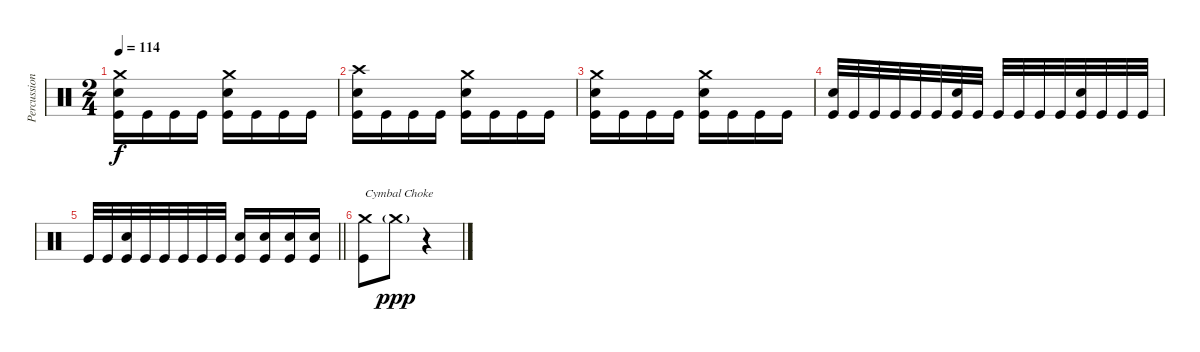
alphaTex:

\track ("Percussion" "Percussion") {instrument percussion}
\staff {score}
\articulation defaults
\ts (2 4)
\tempo 114
\clef neutral
\ks c
("Crash medium (hit)" "Electric Snare (hit)" "Kick (hit)").16{dy f} "Kick (hit)".16 "Kick (hit)".16 "Kick (hit)".16 ("Crash medium (hit)" "Electric Snare (hit)" "Kick (hit)").16 "Kick (hit)".16 "Kick (hit)".16 "Kick (hit)".16 |
("Crash high (hit)" "Electric Snare (hit)" "Kick (hit)").16 "Kick (hit)".16 "Kick (hit)".16 "Kick (hit)".16 ("Crash medium (hit)" "Electric Snare (hit)" "Kick (hit)").16 "Kick (hit)".16 "Kick (hit)".16 "Kick (hit)".16 |
("Crash medium (hit)" "Electric Snare (hit)" "Kick (hit)").16 "Kick (hit)".16 "Kick (hit)".16 "Kick (hit)".16 ("Crash medium (hit)" "Electric Snare (hit)" "Kick (hit)").16 "Kick (hit)".16 "Kick (hit)".16 "Kick (hit)".16 |
("Electric Snare (hit)" "Kick (hit)").32 "Kick (hit)".32 "Kick (hit)".32 "Kick (hit)".32 "Kick (hit)".32 "Kick (hit)".32 ("Electric Snare (hit)" "Kick (hit)").32 "Kick (hit)".32 "Kick (hit)".32 "Kick (hit)".32 "Kick (hit)".32 "Kick (hit)".32 ("Electric Snare (hit)" "Kick (hit)").32 "Kick (hit)".32 "Kick (hit)".32 "Kick (hit)".32 |
\barLineRight lightlight "Kick (hit)".32 "Kick (hit)".32
("Electric Snare (hit)" "Kick (hit)").32 "Kick (hit)".32 "Kick (hit)".32 "Kick (hit)".32 "Kick (hit)".32 "Kick (hit)".32 ("Electric Snare (hit)" "Kick (hit)").16 ("Electric Snare (hit)" "Kick (hit)").16 ("Electric Snare (hit)" "Kick (hit)").16 ("Electric Snare (hit)" "Kick (hit)").16 |
\section ("" "")
("Crash medium (hit)" "Kick (hit)").8{txt "Cymbal Choke"} "Crash medium (hit)"{g}.8{dy ppp} r.4
